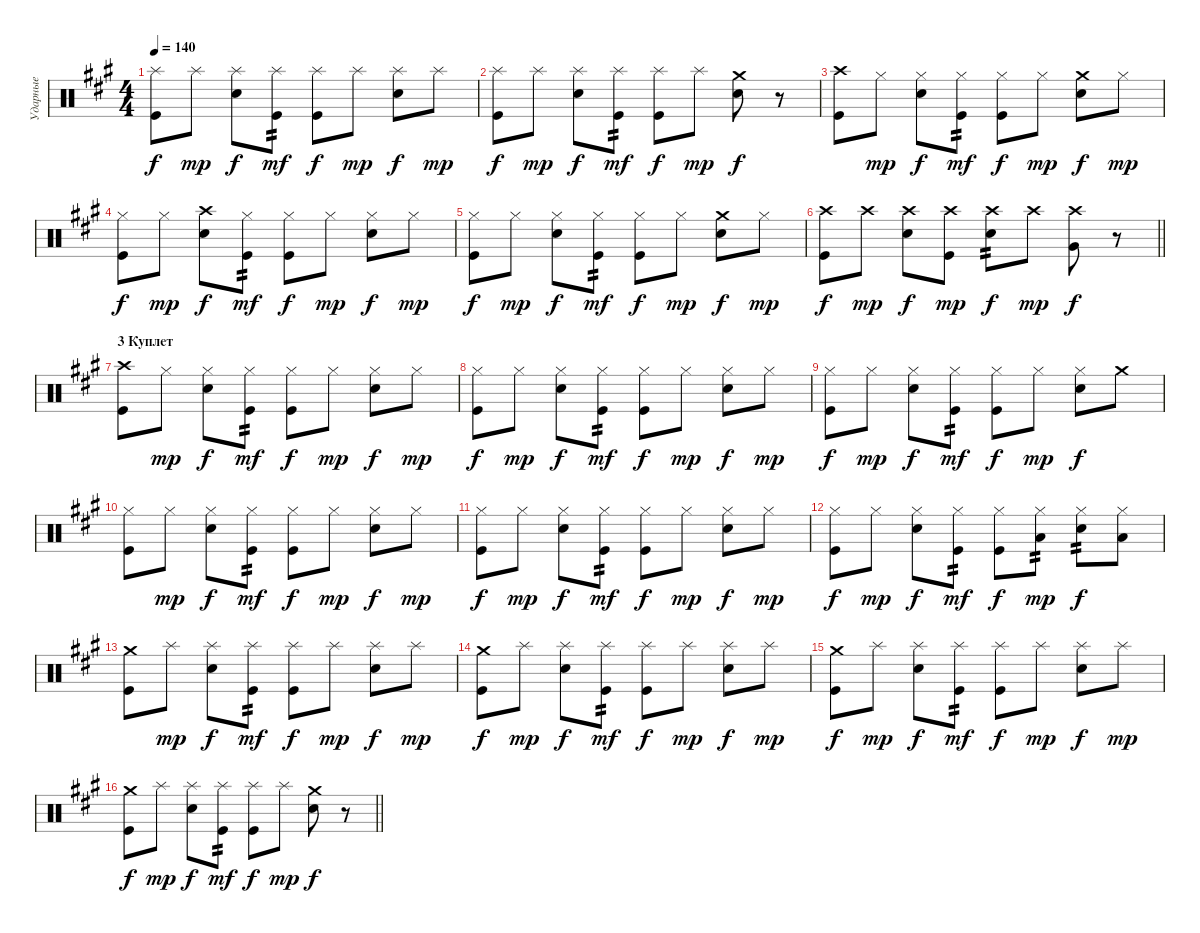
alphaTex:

\track ("Ударные" "Ударные") {instrument percussion}
\staff {score}
\articulation defaults
\ts (4 4)
\tempo 140
\clef neutral
\ks f#minor
("Splash (hit)" "Kick (hit)").8{dy f} "Splash (hit)".8{dy mp} ("Splash (hit)" "Snare (hit) 2").8{dy f} ("Splash (hit)" "Kick (hit)").8{tp 2 dy mf} ("Splash (hit)" "Kick (hit)").8{dy f} "Splash (hit)".8{dy mp} ("Splash (hit)" "Snare (hit) 2").8{dy f} "Splash (hit)".8{dy mp} |
("Splash (hit)" "Kick (hit)").8{dy f} "Splash (hit)".8{dy mp} ("Splash (hit)" "Snare (hit) 2").8{dy f} ("Splash (hit)" "Kick (hit)").8{tp 2 dy mf} ("Splash (hit)" "Kick (hit)").8{dy f} "Splash (hit)".8{dy mp} ("Crash medium (hit)" "Snare (hit) 2").8{dy f} r.8 |
("Crash high (hit)" "Kick (hit)").8 "Hi-Hat (closed)".8{dy mp} ("Hi-Hat (closed)" "Snare (hit) 2").8{dy f} ("Hi-Hat (closed)" "Kick (hit)").8{tp 2 dy mf} ("Hi-Hat (closed)" "Kick (hit)").8{dy f} "Hi-Hat (closed)".8{dy mp} ("Crash medium (hit)" "Snare (hit) 2").8{dy f} "Hi-Hat (closed)".8{dy mp} |
("Hi-Hat (closed)" "Kick (hit)").8{dy f} "Hi-Hat (closed)".8{dy mp} ("Crash high (hit)" "Snare (hit) 2").8{dy f} ("Hi-Hat (closed)" "Kick (hit)").8{tp 2 dy mf} ("Hi-Hat (closed)" "Kick (hit)").8{dy f} "Hi-Hat (closed)".8{dy mp} ("Hi-Hat (closed)" "Snare (hit) 2").8{dy f} "Hi-Hat (closed)".8{dy mp} |
("Hi-Hat (closed)" "Kick (hit)").8{dy f} "Hi-Hat (closed)".8{dy mp} ("Hi-Hat (closed)" "Snare (hit) 2").8{dy f} ("Hi-Hat (closed)" "Kick (hit)").8{tp 2 dy mf} ("Hi-Hat (closed)" "Kick (hit)").8{dy f} "Hi-Hat (closed)".8{dy mp} ("Crash medium (hit)" "Snare (hit) 2").8{dy f} "Hi-Hat (closed)".8{dy mp} |
\barLineRight lightlight
("Crash high (hit)" "Kick (hit)").8{dy f} "Crash high (hit)".8{dy mp} ("Crash high (hit)" "Snare (hit) 2").8{dy f} ("Crash high (hit)" "Kick (hit)").8{dy mp} ("Crash high (hit)" "Snare (hit) 2").8{tp 2 dy f} "Crash high (hit)".8{dy mp} ("Crash high (hit)" "Very Low Tom (hit)").8{dy f} r.8 |
\section ("" "3 Куплет")
("Crash high (hit)" "Kick (hit)").8 "Hi-Hat (closed)".8{dy mp} ("Hi-Hat (closed)" "Snare (hit) 2").8{dy f} ("Hi-Hat (closed)" "Kick (hit)").8{tp 2 dy mf} ("Hi-Hat (closed)" "Kick (hit)").8{dy f} "Hi-Hat (closed)".8{dy mp} ("Hi-Hat (closed)" "Snare (hit) 2").8{dy f} "Hi-Hat (closed)".8{dy mp} |
("Hi-Hat (closed)" "Kick (hit)").8{dy f} "Hi-Hat (closed)".8{dy mp} ("Hi-Hat (closed)" "Snare (hit) 2").8{dy f} ("Hi-Hat (closed)" "Kick (hit)").8{tp 2 dy mf} ("Hi-Hat (closed)" "Kick (hit)").8{dy f} "Hi-Hat (closed)".8{dy mp} ("Hi-Hat (closed)" "Snare (hit) 2").8{dy f} "Hi-Hat (closed)".8{dy mp} |
("Hi-Hat (closed)" "Kick (hit)").8{dy f} "Hi-Hat (closed)".8{dy mp} ("Hi-Hat (closed)" "Snare (hit) 2").8{dy f} ("Hi-Hat (closed)" "Kick (hit)").8{tp 2 dy mf} ("Hi-Hat (closed)" "Kick (hit)").8{dy f} "Hi-Hat (closed)".8{dy mp} ("Hi-Hat (closed)" "Snare (hit) 2").8{dy f} "Crash medium (hit)".8 |
("Hi-Hat (closed)" "Kick (hit)").8 "Hi-Hat (closed)".8{dy mp} ("Hi-Hat (closed)" "Snare (hit) 2").8{dy f} ("Hi-Hat (closed)" "Kick (hit)").8{tp 2 dy mf} ("Hi-Hat (closed)" "Kick (hit)").8{dy f} "Hi-Hat (closed)".8{dy mp} ("Hi-Hat (closed)" "Snare (hit) 2").8{dy f} "Hi-Hat (closed)".8{dy mp} |
("Hi-Hat (closed)" "Kick (hit)").8{dy f} "Hi-Hat (closed)".8{dy mp} ("Hi-Hat (closed)" "Snare (hit) 2").8{dy f} ("Hi-Hat (closed)" "Kick (hit)").8{tp 2 dy mf} ("Hi-Hat (closed)" "Kick (hit)").8{dy f} "Hi-Hat (closed)".8{dy mp} ("Hi-Hat (closed)" "Snare (hit) 2").8{dy f} "Hi-Hat (closed)".8{dy mp} |
("Hi-Hat (closed)" "Kick (hit)").8{dy f} "Hi-Hat (closed)".8{dy mp} ("Hi-Hat (closed)" "Snare (hit) 2").8{dy f} ("Hi-Hat (closed)" "Kick (hit)").8{tp 2 dy mf} ("Hi-Hat (closed)" "Kick (hit)").8{dy f} ("Hi-Hat (closed)" "Low Tom (hit)").8{tp 2 dy mp} ("Hi-Hat (closed)" "Snare (hit) 2").8{tp 2 dy f} ("Hi-Hat (closed)" "Low Tom (hit)").8 |
("Crash medium (hit)" "Kick (hit)").8 "Splash (hit)".8{dy mp} ("Splash (hit)" "Snare (hit) 2").8{dy f} ("Splash (hit)" "Kick (hit)").8{tp 2 dy mf} ("Splash (hit)" "Kick (hit)").8{dy f} "Splash (hit)".8{dy mp} ("Splash (hit)" "Snare (hit) 2").8{dy f} "Splash (hit)".8{dy mp} |
("Crash medium (hit)" "Kick (hit)").8{dy f} "Splash (hit)".8{dy mp} ("Splash (hit)" "Snare (hit) 2").8{dy f} ("Splash (hit)" "Kick (hit)").8{tp 2 dy mf} ("Splash (hit)" "Kick (hit)").8{dy f} "Splash (hit)".8{dy mp} ("Splash (hit)" "Snare (hit) 2").8{dy f} "Splash (hit)".8{dy mp} |
("Crash medium (hit)" "Kick (hit)").8{dy f} "Splash (hit)".8{dy mp} ("Splash (hit)" "Snare (hit) 2").8{dy f} ("Splash (hit)" "Kick (hit)").8{tp 2 dy mf} ("Splash (hit)" "Kick (hit)").8{dy f} "Splash (hit)".8{dy mp} ("Splash (hit)" "Snare (hit) 2").8{dy f} "Splash (hit)".8{dy mp} |
\barLineRight lightlight
("Crash medium (hit)" "Kick (hit)").8{dy f} "Splash (hit)".8{dy mp} ("Splash (hit)" "Snare (hit) 2").8{dy f} ("Splash (hit)" "Kick (hit)").8{tp 2 dy mf} ("Splash (hit)" "Kick (hit)").8{dy f} "Splash (hit)".8{dy mp} ("Crash medium (hit)" "Snare (hit) 2").8{dy f} r.8
